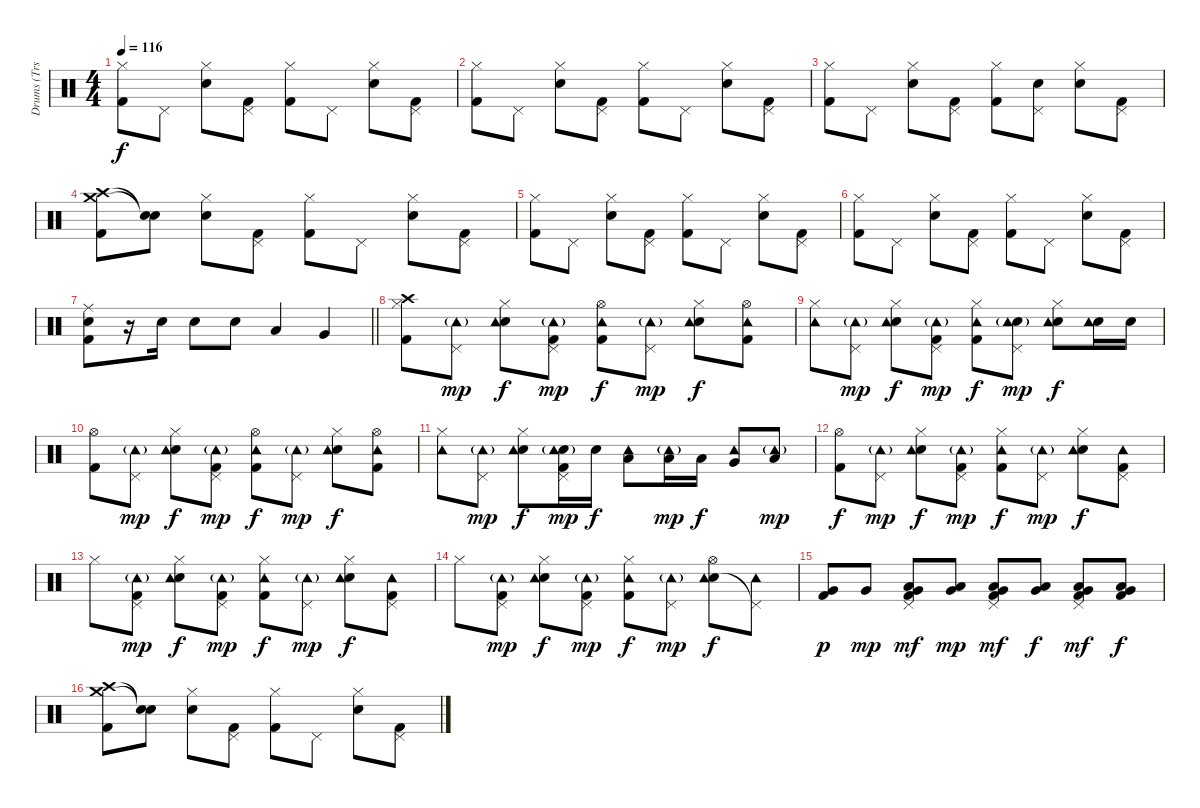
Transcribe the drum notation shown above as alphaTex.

\track ("Drums (Trs. 7-8A, 10A/7-8B, 10B, 12-13B)" "Drums (Trs") {mute instrument percussion}
\staff {score}
\articulation defaults
\ts (4 4)
\tempo 116
\clef neutral
\ks c
("Hi-Hat (closed)" "Kick (hit) 2").8{dy f} "Pedal Hi-Hat (hit)".8 ("Electric Snare (hit)" "Hi-Hat (closed)").8 ("Pedal Hi-Hat (hit)" "Kick (hit) 2").8 ("Hi-Hat (closed)" "Kick (hit) 2").8 "Pedal Hi-Hat (hit)".8 ("Electric Snare (hit)" "Hi-Hat (closed)").8 ("Pedal Hi-Hat (hit)" "Kick (hit) 2").8 |
("Hi-Hat (closed)" "Kick (hit) 2").8 "Pedal Hi-Hat (hit)".8 ("Electric Snare (hit)" "Hi-Hat (closed)").8 ("Pedal Hi-Hat (hit)" "Kick (hit) 2").8 ("Hi-Hat (closed)" "Kick (hit) 2").8 "Pedal Hi-Hat (hit)".8 ("Electric Snare (hit)" "Hi-Hat (closed)").8 ("Pedal Hi-Hat (hit)" "Kick (hit) 2").8 |
("Hi-Hat (closed)" "Kick (hit) 2").8 "Pedal Hi-Hat (hit)".8 ("Electric Snare (hit)" "Hi-Hat (closed)").8 ("Pedal Hi-Hat (hit)" "Kick (hit) 2").8 ("Hi-Hat (closed)" "Kick (hit) 2").8 ("Electric Snare (hit)" "Pedal Hi-Hat (hit)").8 ("Electric Snare (hit)" "Hi-Hat (closed)").8 ("Pedal Hi-Hat (hit)" "Kick (hit) 2").8 |
("Crash medium (hit)" "Crash high (hit)" "Kick (hit) 2").8 ("Snare (hit)"{t} "Snare (hit)"{t}).8 ("Electric Snare (hit)" "Hi-Hat (closed)").8 ("Pedal Hi-Hat (hit)" "Kick (hit) 2").8 ("Hi-Hat (closed)" "Kick (hit) 2").8 "Pedal Hi-Hat (hit)".8 ("Electric Snare (hit)" "Hi-Hat (closed)").8 ("Pedal Hi-Hat (hit)" "Kick (hit) 2").8 |
("Hi-Hat (closed)" "Kick (hit) 2").8 "Pedal Hi-Hat (hit)".8 ("Electric Snare (hit)" "Hi-Hat (closed)").8 ("Pedal Hi-Hat (hit)" "Kick (hit) 2").8 ("Hi-Hat (closed)" "Kick (hit) 2").8 "Pedal Hi-Hat (hit)".8 ("Electric Snare (hit)" "Hi-Hat (closed)").8 ("Pedal Hi-Hat (hit)" "Kick (hit) 2").8 |
("Hi-Hat (closed)" "Kick (hit) 2").8 "Pedal Hi-Hat (hit)".8 ("Electric Snare (hit)" "Hi-Hat (closed)").8 ("Pedal Hi-Hat (hit)" "Kick (hit) 2").8 ("Hi-Hat (closed)" "Kick (hit) 2").8 "Pedal Hi-Hat (hit)".8 ("Electric Snare (hit)" "Hi-Hat (closed)").8 ("Pedal Hi-Hat (hit)" "Kick (hit) 2").8 |
\barLineRight lightlight
("Ride (middle)" "Electric Snare (hit)" "Kick (hit) 2").8 r.16 "Electric Snare (hit)".16 "Electric Snare (hit)".8 "Electric Snare (hit)".8 "Low Tom (hit)".4 "Very Low Tom (hit)".4 |
("Crash high (hit)" "Hi-Hat (closed)" "Kick (hit) 2").8 ("Pedal Hi-Hat (hit)" "Tambourine (hit)"{g}).8{dy mp} ("Electric Snare (hit)" "Hi-Hat (closed)" "Tambourine (hit)").8{dy f} ("Pedal Hi-Hat (hit)" "Tambourine (hit)"{g} "Kick (hit) 2").8{dy mp} ("Hi-Hat (open)" "Tambourine (hit)" "Kick (hit) 2").8{dy f} ("Pedal Hi-Hat (hit)" "Tambourine (hit)"{g}).8{dy mp} ("Electric Snare (hit)" "Hi-Hat (closed)" "Tambourine (hit)").8{dy f} ("Hi-Hat (open)" "Tambourine (hit)" "Kick (hit) 2").8 |
("Hi-Hat (closed)" "Tambourine (hit)").8 ("Pedal Hi-Hat (hit)" "Tambourine (hit)"{g}).8{dy mp} ("Electric Snare (hit)" "Hi-Hat (closed)" "Tambourine (hit)").8{dy f} ("Pedal Hi-Hat (hit)" "Tambourine (hit)"{g} "Kick (hit) 2").8{dy mp} ("Hi-Hat (closed)" "Tambourine (hit)" "Kick (hit) 2").8{dy f} ("Electric Snare (hit)" "Pedal Hi-Hat (hit)" "Tambourine (hit)"{g}).8{dy mp} ("Electric Snare (hit)" "Hi-Hat (closed)" "Tambourine (hit)").8{dy f} ("Electric Snare (hit)" "Tambourine (hit)").16 "Electric Snare (hit)".16 |
("Hi-Hat (open)" "Kick (hit) 2").8 ("Pedal Hi-Hat (hit)" "Tambourine (hit)"{g}).8{dy mp} ("Electric Snare (hit)" "Hi-Hat (closed)" "Tambourine (hit)").8{dy f} ("Pedal Hi-Hat (hit)" "Tambourine (hit)"{g} "Kick (hit) 2").8{dy mp} ("Hi-Hat (open)" "Tambourine (hit)" "Kick (hit) 2").8{dy f} ("Pedal Hi-Hat (hit)" "Tambourine (hit)"{g}).8{dy mp} ("Electric Snare (hit)" "Hi-Hat (closed)" "Tambourine (hit)").8{dy f} ("Hi-Hat (open)" "Tambourine (hit)" "Kick (hit) 2").8 |
("Hi-Hat (closed)" "Tambourine (hit)").8 ("Pedal Hi-Hat (hit)" "Tambourine (hit)"{g}).8{dy mp} ("Electric Snare (hit)" "Hi-Hat (closed)" "Tambourine (hit)").8{dy f} ("Electric Snare (hit)" "Pedal Hi-Hat (hit)" "Tambourine (hit)"{g} "Kick (hit) 2").16{dy mp} "Electric Snare (hit)".16{dy f} ("Tambourine (hit)" "Low Tom (hit)").8 ("Tambourine (hit)"{g} "Low Tom (hit)").16{dy mp} "Low Tom (hit)".16{dy f} ("Tambourine (hit)" "Very Low Tom (hit)").8 ("Tambourine (hit)"{g} "Low Floor Tom (hit)").8{dy mp} |
("Hi-Hat (open)" "Kick (hit) 2").8{dy f} ("Pedal Hi-Hat (hit)" "Tambourine (hit)"{g}).8{dy mp} ("Electric Snare (hit)" "Hi-Hat (closed)" "Tambourine (hit)").8{dy f} ("Pedal Hi-Hat (hit)" "Tambourine (hit)"{g} "Kick (hit) 2").8{dy mp} ("Hi-Hat (closed)" "Tambourine (hit)" "Kick (hit) 2").8{dy f} ("Pedal Hi-Hat (hit)" "Tambourine (hit)"{g}).8{dy mp} ("Electric Snare (hit)" "Hi-Hat (closed)" "Tambourine (hit)").8{dy f} ("Pedal Hi-Hat (hit)" "Tambourine (hit)" "Kick (hit) 2").8 |
"Hi-Hat (closed)".8 ("Pedal Hi-Hat (hit)" "Tambourine (hit)"{g} "Kick (hit) 2").8{dy mp} ("Electric Snare (hit)" "Hi-Hat (closed)" "Tambourine (hit)").8{dy f} ("Pedal Hi-Hat (hit)" "Tambourine (hit)"{g} "Kick (hit) 2").8{dy mp} ("Hi-Hat (closed)" "Tambourine (hit)" "Kick (hit) 2").8{dy f} ("Pedal Hi-Hat (hit)" "Tambourine (hit)"{g}).8{dy mp} ("Electric Snare (hit)" "Hi-Hat (closed)" "Tambourine (hit)").8{dy f} ("Pedal Hi-Hat (hit)" "Tambourine (hit)" "Kick (hit) 2").8 |
"Hi-Hat (closed)".8 ("Pedal Hi-Hat (hit)" "Tambourine (hit)"{g} "Kick (hit) 2").8{dy mp} ("Electric Snare (hit)" "Hi-Hat (closed)" "Tambourine (hit)").8{dy f} ("Pedal Hi-Hat (hit)" "Tambourine (hit)"{g} "Kick (hit) 2").8{dy mp} ("Hi-Hat (closed)" "Tambourine (hit)" "Kick (hit) 2").8{dy f} ("Pedal Hi-Hat (hit)" "Tambourine (hit)"{g}).8{dy mp} ("Electric Snare (hit)" "Hi-Hat (open)" "Tambourine (hit)").8{dy f} ("Pedal Hi-Hat (hit)"{t} "Tambourine (hit)").8 |
("Very Low Tom (hit)" "Kick (hit) 2").8{dy p} "Very Low Tom (hit)".8{dy mp} ("Pedal Hi-Hat (hit)" "Low Tom (hit)" "Very Low Tom (hit)" "Kick (hit) 2").8{dy mf} ("Low Tom (hit)" "Very Low Tom (hit)").8{dy mp} ("Pedal Hi-Hat (hit)" "Low Tom (hit)" "Very Low Tom (hit)" "Kick (hit) 2").8{dy mf} ("Low Tom (hit)" "Very Low Tom (hit)").8{dy f} ("Pedal Hi-Hat (hit)" "Low Tom (hit)" "Very Low Tom (hit)" "Kick (hit) 2").8{dy mf} ("Low Tom (hit)" "Very Low Tom (hit)" "Kick (hit) 2").8{dy f} |
("Crash medium (hit)" "Crash high (hit)" "Kick (hit) 2").8 ("Snare (hit)"{t} "Snare (hit)"{t}).8 ("Electric Snare (hit)" "Hi-Hat (closed)").8 ("Pedal Hi-Hat (hit)" "Kick (hit) 2").8 ("Hi-Hat (closed)" "Kick (hit) 2").8 "Pedal Hi-Hat (hit)".8 ("Electric Snare (hit)" "Hi-Hat (closed)").8 ("Pedal Hi-Hat (hit)" "Kick (hit) 2").8
